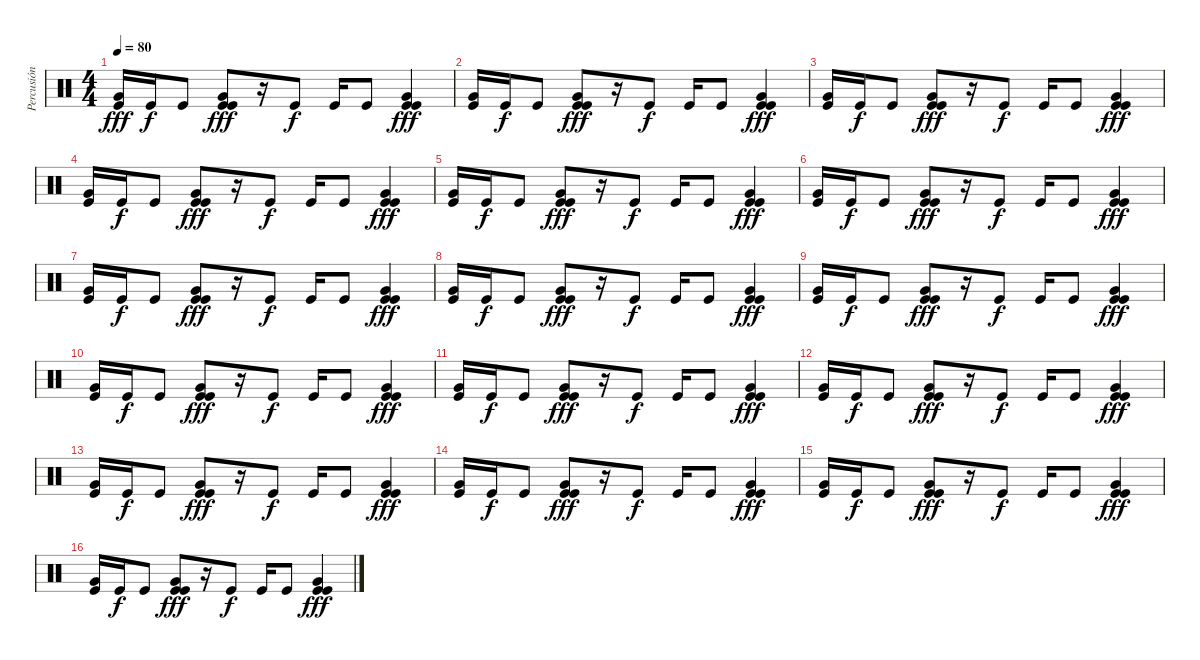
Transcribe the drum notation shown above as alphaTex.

\track ("Percusión" "Percusión") {instrument percussion}
\staff {score}
\articulation defaults
\ts (4 4)
\tempo 80
\clef neutral
\ks c
("Kick (hit)" "Very Low Tom (hit)").16{dy fff} "Kick (hit)".16{dy f} "Kick (hit)".8 ("Kick (hit)" "Very Low Tom (hit)" "Kick (hit)").8{dy fff} r.16 "Kick (hit)".8{dy f} "Kick (hit)".16 "Kick (hit)".8 ("Kick (hit)" "Very Low Tom (hit)" "Kick (hit)").4{dy fff} |
("Kick (hit)" "Very Low Tom (hit)").16 "Kick (hit)".16{dy f} "Kick (hit)".8 ("Kick (hit)" "Very Low Tom (hit)" "Kick (hit)").8{dy fff} r.16 "Kick (hit)".8{dy f} "Kick (hit)".16 "Kick (hit)".8 ("Kick (hit)" "Very Low Tom (hit)" "Kick (hit)").4{dy fff} |
("Kick (hit)" "Very Low Tom (hit)").16 "Kick (hit)".16{dy f} "Kick (hit)".8 ("Kick (hit)" "Very Low Tom (hit)" "Kick (hit)").8{dy fff} r.16 "Kick (hit)".8{dy f} "Kick (hit)".16 "Kick (hit)".8 ("Kick (hit)" "Very Low Tom (hit)" "Kick (hit)").4{dy fff} |
("Kick (hit)" "Very Low Tom (hit)").16 "Kick (hit)".16{dy f} "Kick (hit)".8 ("Kick (hit)" "Very Low Tom (hit)" "Kick (hit)").8{dy fff} r.16 "Kick (hit)".8{dy f} "Kick (hit)".16 "Kick (hit)".8 ("Kick (hit)" "Very Low Tom (hit)" "Kick (hit)").4{dy fff} |
("Kick (hit)" "Very Low Tom (hit)").16 "Kick (hit)".16{dy f} "Kick (hit)".8 ("Kick (hit)" "Very Low Tom (hit)" "Kick (hit)").8{dy fff} r.16 "Kick (hit)".8{dy f} "Kick (hit)".16 "Kick (hit)".8 ("Kick (hit)" "Very Low Tom (hit)" "Kick (hit)").4{dy fff} |
("Kick (hit)" "Very Low Tom (hit)").16 "Kick (hit)".16{dy f} "Kick (hit)".8 ("Kick (hit)" "Very Low Tom (hit)" "Kick (hit)").8{dy fff} r.16 "Kick (hit)".8{dy f} "Kick (hit)".16 "Kick (hit)".8 ("Kick (hit)" "Very Low Tom (hit)" "Kick (hit)").4{dy fff} |
("Kick (hit)" "Very Low Tom (hit)").16 "Kick (hit)".16{dy f} "Kick (hit)".8 ("Kick (hit)" "Very Low Tom (hit)" "Kick (hit)").8{dy fff} r.16 "Kick (hit)".8{dy f} "Kick (hit)".16 "Kick (hit)".8 ("Kick (hit)" "Very Low Tom (hit)" "Kick (hit)").4{dy fff} |
("Kick (hit)" "Very Low Tom (hit)").16 "Kick (hit)".16{dy f} "Kick (hit)".8 ("Kick (hit)" "Very Low Tom (hit)" "Kick (hit)").8{dy fff} r.16 "Kick (hit)".8{dy f} "Kick (hit)".16 "Kick (hit)".8 ("Kick (hit)" "Very Low Tom (hit)" "Kick (hit)").4{dy fff} |
("Kick (hit)" "Very Low Tom (hit)").16 "Kick (hit)".16{dy f} "Kick (hit)".8 ("Kick (hit)" "Very Low Tom (hit)" "Kick (hit)").8{dy fff} r.16 "Kick (hit)".8{dy f} "Kick (hit)".16 "Kick (hit)".8 ("Kick (hit)" "Very Low Tom (hit)" "Kick (hit)").4{dy fff} |
("Kick (hit)" "Very Low Tom (hit)").16 "Kick (hit)".16{dy f} "Kick (hit)".8 ("Kick (hit)" "Very Low Tom (hit)" "Kick (hit)").8{dy fff} r.16 "Kick (hit)".8{dy f} "Kick (hit)".16 "Kick (hit)".8 ("Kick (hit)" "Very Low Tom (hit)" "Kick (hit)").4{dy fff} |
("Kick (hit)" "Very Low Tom (hit)").16 "Kick (hit)".16{dy f} "Kick (hit)".8 ("Kick (hit)" "Very Low Tom (hit)" "Kick (hit)").8{dy fff} r.16 "Kick (hit)".8{dy f} "Kick (hit)".16 "Kick (hit)".8 ("Kick (hit)" "Very Low Tom (hit)" "Kick (hit)").4{dy fff} |
("Kick (hit)" "Very Low Tom (hit)").16 "Kick (hit)".16{dy f} "Kick (hit)".8 ("Kick (hit)" "Very Low Tom (hit)" "Kick (hit)").8{dy fff} r.16 "Kick (hit)".8{dy f} "Kick (hit)".16 "Kick (hit)".8 ("Kick (hit)" "Very Low Tom (hit)" "Kick (hit)").4{dy fff} |
("Kick (hit)" "Very Low Tom (hit)").16 "Kick (hit)".16{dy f} "Kick (hit)".8 ("Kick (hit)" "Very Low Tom (hit)" "Kick (hit)").8{dy fff} r.16 "Kick (hit)".8{dy f} "Kick (hit)".16 "Kick (hit)".8 ("Kick (hit)" "Very Low Tom (hit)" "Kick (hit)").4{dy fff} |
("Kick (hit)" "Very Low Tom (hit)").16 "Kick (hit)".16{dy f} "Kick (hit)".8 ("Kick (hit)" "Very Low Tom (hit)" "Kick (hit)").8{dy fff} r.16 "Kick (hit)".8{dy f} "Kick (hit)".16 "Kick (hit)".8 ("Kick (hit)" "Very Low Tom (hit)" "Kick (hit)").4{dy fff} |
("Kick (hit)" "Very Low Tom (hit)").16 "Kick (hit)".16{dy f} "Kick (hit)".8 ("Kick (hit)" "Very Low Tom (hit)" "Kick (hit)").8{dy fff} r.16 "Kick (hit)".8{dy f} "Kick (hit)".16 "Kick (hit)".8 ("Kick (hit)" "Very Low Tom (hit)" "Kick (hit)").4{dy fff} |
("Kick (hit)" "Very Low Tom (hit)").16 "Kick (hit)".16{dy f} "Kick (hit)".8 ("Kick (hit)" "Very Low Tom (hit)" "Kick (hit)").8{dy fff} r.16 "Kick (hit)".8{dy f} "Kick (hit)".16 "Kick (hit)".8 ("Kick (hit)" "Very Low Tom (hit)" "Kick (hit)").4{dy fff}
